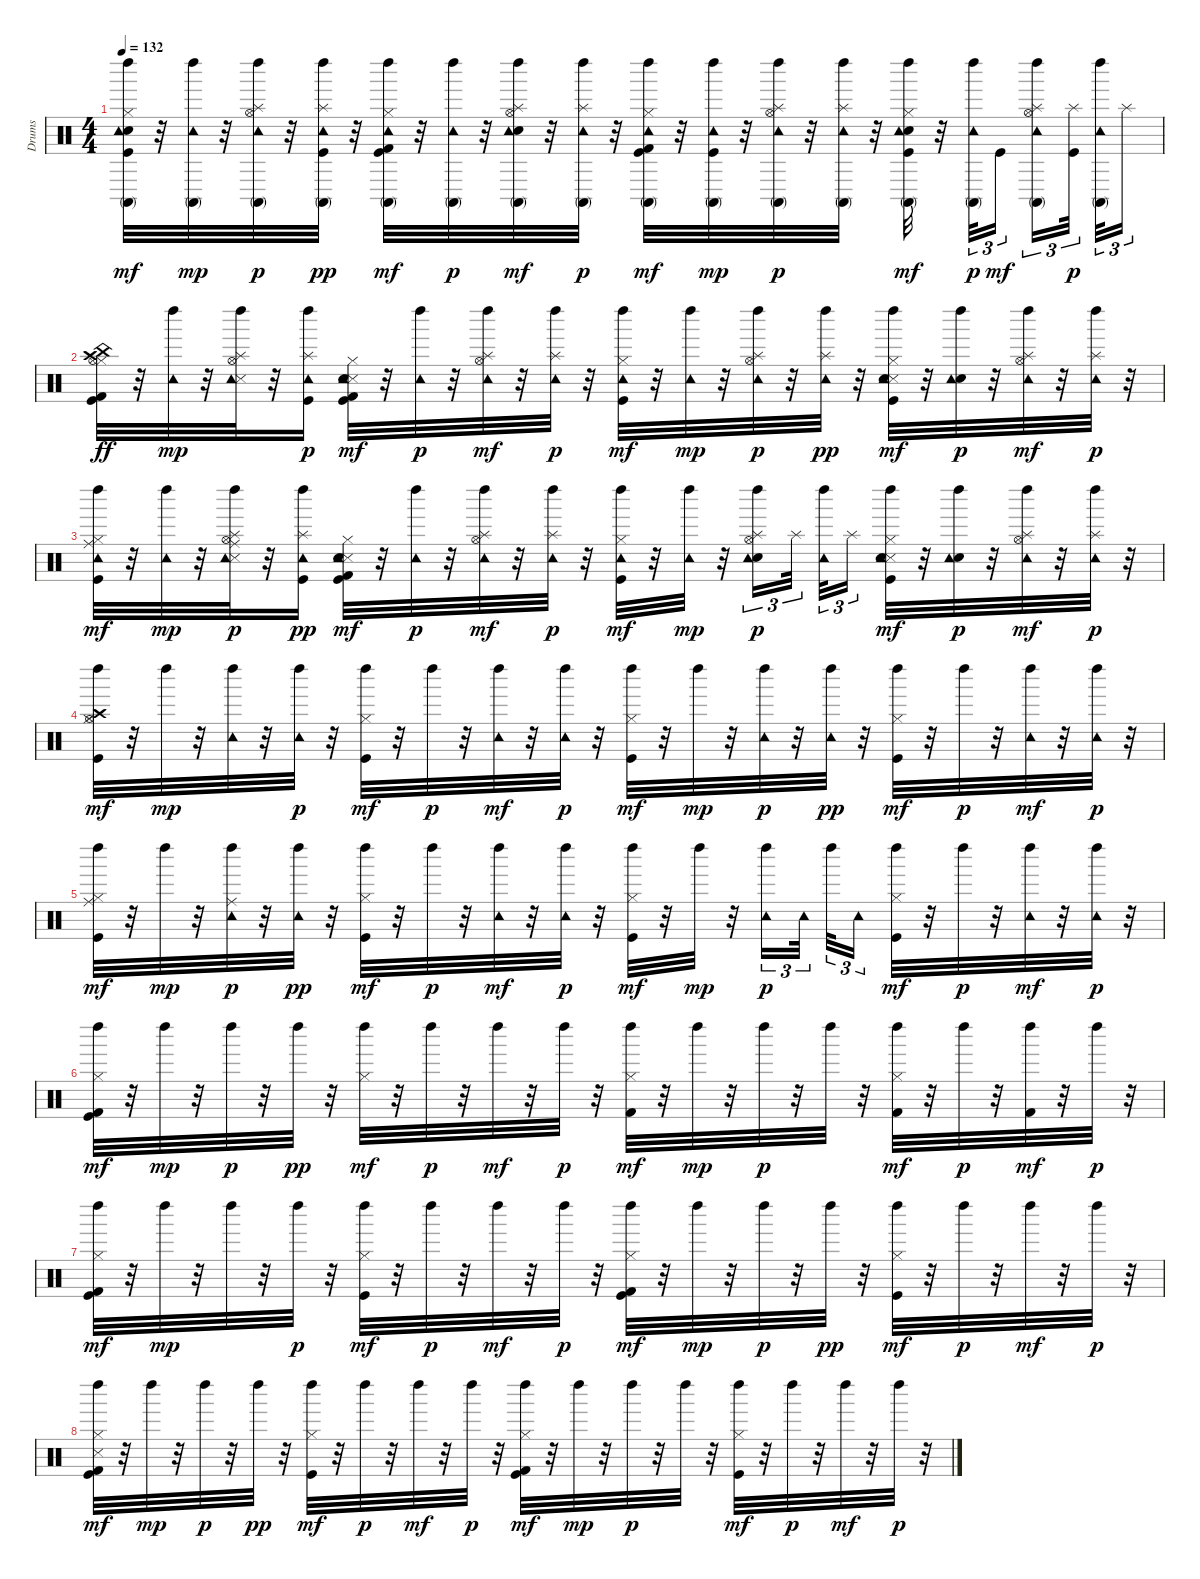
\track ("Drums" "Drums") {instrument percussion}
\staff {score}
\articulation defaults
\ts (4 4)
\tempo 132
\clef neutral
\ks c
("Kick (hit)" "Hand Clap (hit)" "Hi-Hat (closed)" "Tambourine (hit)" "Conga high (mute)" "Left Maraca (hit)").32{dy mf} r.32 ("Tambourine (hit)" "Conga high (mute)" "Left Maraca (hit)").32{dy mp} r.32 ("Hi-Hat (open)" "Tambourine (hit)" "Splash (hit)" "Conga high (mute)" "Left Maraca (hit)").32{dy p} r.32 ("Kick (hit)" "Tambourine (hit)" "Splash (hit)" "Conga high (mute)" "Left Maraca (hit)").32{dy pp} r.32 ("Kick (hit)" "Kick (hit) 2" "Hi-Hat (closed)" "Tambourine (hit)" "Conga high (mute)" "Left Maraca (hit)").32{dy mf} r.32 ("Tambourine (hit)" "Conga high (mute)" "Left Maraca (hit)").32{dy p} r.32 ("Hand Clap (hit)" "Hi-Hat (open)" "Tambourine (hit)" "Splash (hit)" "Conga high (mute)" "Left Maraca (hit)").32{dy mf} r.32 ("Tambourine (hit)" "Splash (hit)" "Conga high (mute)" "Left Maraca (hit)").32{dy p} r.32 ("Kick (hit)" "Kick (hit) 2" "Hi-Hat (closed)" "Tambourine (hit)" "Conga high (mute)" "Left Maraca (hit)").32{dy mf} r.32 ("Kick (hit)" "Tambourine (hit)" "Conga high (mute)" "Left Maraca (hit)").32{dy mp} r.32 ("Hi-Hat (open)" "Tambourine (hit)" "Splash (hit)" "Conga high (mute)" "Left Maraca (hit)").32{dy p} r.32 ("Tambourine (hit)" "Splash (hit)" "Conga high (mute)" "Left Maraca (hit)").32 r.32 ("Kick (hit)" "Hand Clap (hit)" "Hi-Hat (closed)" "Tambourine (hit)" "Conga high (mute)" "Left Maraca (hit)").32{dy mf} r.32 ("Tambourine (hit)" "Conga high (mute)" "Left Maraca (hit)").32{tu (3 2) dy p} "Kick (hit)".16{tu (3 2) dy mf beam splitsecondary} ("Hi-Hat (open)" "Tambourine (hit)" "Splash (hit)" "Conga high (mute)" "Left Maraca (hit)").16{tu (3 2)} ("Kick (hit)" "Splash (hit)").32{tu (3 2) dy p beam splitsecondary} ("Tambourine (hit)" "Conga high (mute)" "Left Maraca (hit)").32{tu (3 2)} "Splash (hit)".16{tu (3 2)} |
("Kick (hit)" "Kick (hit) 2" "Hi-Hat (closed)" "Hi-Hat (open)" "Crash high (hit)" "China (hit)").32{dy ff} r.32 ("Tambourine (hit)" "Left Maraca (hit)").32{dy mp} r.32 ("Snare (side stick) 3" "Hi-Hat (open)" "Tambourine (hit)" "Splash (hit)" "Left Maraca (hit)").32 r.32 ("Kick (hit)" "Tambourine (hit)" "Splash (hit)" "Left Maraca (hit)").16{dy p} ("Kick (hit)" "Kick (hit) 2" "Snare (side stick) 3" "Hand Clap (hit)" "Hi-Hat (closed)" "Tambourine (hit)").32{dy mf} r.32 ("Tambourine (hit)" "Left Maraca (hit)").32{dy p} r.32 ("Hi-Hat (open)" "Tambourine (hit)" "Splash (hit)" "Left Maraca (hit)").32{dy mf} r.32 ("Tambourine (hit)" "Splash (hit)" "Left Maraca (hit)").32{dy p} r.32 ("Kick (hit)" "Hi-Hat (closed)" "Tambourine (hit)" "Left Maraca (hit)").32{dy mf} r.32 ("Tambourine (hit)" "Left Maraca (hit)").32{dy mp} r.32 ("Hi-Hat (open)" "Tambourine (hit)" "Splash (hit)" "Left Maraca (hit)").32{dy p} r.32 ("Tambourine (hit)" "Splash (hit)" "Left Maraca (hit)").32{dy pp} r.32 ("Kick (hit)" "Snare (side stick) 3" "Hand Clap (hit)" "Hi-Hat (closed)" "Tambourine (hit)" "Left Maraca (hit)").32{dy mf} r.32 ("Hand Clap (hit)" "Tambourine (hit)" "Left Maraca (hit)").32{dy p} r.32 ("Hi-Hat (open)" "Tambourine (hit)" "Splash (hit)" "Left Maraca (hit)").32{dy mf} r.32 ("Tambourine (hit)" "Splash (hit)" "Left Maraca (hit)").32{dy p} r.32 |
("Kick (hit)" "Hi-Hat (closed)" "Ride (middle)" "Tambourine (hit)" "Left Maraca (hit)").32{dy mf} r.32 ("Tambourine (hit)" "Left Maraca (hit)").32{dy mp} r.32 ("Snare (side stick) 3" "Hi-Hat (open)" "Ride (middle)" "Tambourine (hit)" "Splash (hit)" "Left Maraca (hit)").32{dy p} r.32 ("Kick (hit)" "Tambourine (hit)" "Splash (hit)" "Left Maraca (hit)").16{dy pp} ("Kick (hit)" "Kick (hit) 2" "Snare (side stick) 3" "Hand Clap (hit)" "Hi-Hat (closed)" "Tambourine (hit)").32{dy mf} r.32 ("Tambourine (hit)" "Left Maraca (hit)").32{dy p} r.32 ("Hi-Hat (open)" "Tambourine (hit)" "Splash (hit)" "Left Maraca (hit)").32{dy mf} r.32 ("Tambourine (hit)" "Splash (hit)" "Left Maraca (hit)").32{dy p} r.32 ("Kick (hit)" "Hi-Hat (closed)" "Tambourine (hit)" "Left Maraca (hit)").32{dy mf} r.32 ("Tambourine (hit)" "Left Maraca (hit)").32{dy mp} r.32 ("Hand Clap (hit)" "Hi-Hat (open)" "Tambourine (hit)" "Splash (hit)" "Left Maraca (hit)").16{tu (3 2) dy p} "Splash (hit)".32{tu (3 2) beam splitsecondary} ("Tambourine (hit)" "Left Maraca (hit)").32{tu (3 2)} "Splash (hit)".16{tu (3 2)} ("Kick (hit)" "Snare (side stick) 3" "Hand Clap (hit)" "Hi-Hat (closed)" "Tambourine (hit)" "Left Maraca (hit)").32{dy mf} r.32 ("Hand Clap (hit)" "Tambourine (hit)" "Left Maraca (hit)").32{dy p} r.32 ("Hi-Hat (open)" "Tambourine (hit)" "Splash (hit)" "Left Maraca (hit)").32{dy mf} r.32 ("Tambourine (hit)" "Splash (hit)" "Left Maraca (hit)").32{dy p} r.32 |
("Kick (hit)" "Hi-Hat (closed)" "Hi-Hat (open)" "Crash high (hit)" "Left Maraca (hit)").32{dy mf} r.32 "Left Maraca (hit)".32{dy mp} r.32 ("Tambourine (hit)" "Left Maraca (hit)").32 r.32 ("Tambourine (hit)" "Left Maraca (hit)").32{dy p} r.32 ("Kick (hit)" "Hi-Hat (closed)" "Left Maraca (hit)").32{dy mf} r.32 "Left Maraca (hit)".32{dy p} r.32 ("Tambourine (hit)" "Left Maraca (hit)").32{dy mf} r.32 ("Tambourine (hit)" "Left Maraca (hit)").32{dy p} r.32 ("Kick (hit)" "Hi-Hat (closed)" "Left Maraca (hit)").32{dy mf} r.32 "Left Maraca (hit)".32{dy mp} r.32 ("Tambourine (hit)" "Left Maraca (hit)").32{dy p} r.32 ("Tambourine (hit)" "Left Maraca (hit)").32{dy pp} r.32 ("Kick (hit)" "Hi-Hat (closed)" "Left Maraca (hit)").32{dy mf} r.32 "Left Maraca (hit)".32{dy p} r.32 ("Tambourine (hit)" "Left Maraca (hit)").32{dy mf} r.32 ("Tambourine (hit)" "Left Maraca (hit)").32{dy p} r.32 |
("Kick (hit)" "Hi-Hat (closed)" "Ride (middle)" "Left Maraca (hit)").32{dy mf} r.32 "Left Maraca (hit)".32{dy mp} r.32 ("Ride (middle)" "Tambourine (hit)" "Left Maraca (hit)").32{dy p} r.32 ("Tambourine (hit)" "Left Maraca (hit)").32{dy pp} r.32 ("Kick (hit)" "Hi-Hat (closed)" "Left Maraca (hit)").32{dy mf} r.32 "Left Maraca (hit)".32{dy p} r.32 ("Tambourine (hit)" "Left Maraca (hit)").32{dy mf} r.32 ("Tambourine (hit)" "Left Maraca (hit)").32{dy p} r.32 ("Kick (hit)" "Hi-Hat (closed)" "Left Maraca (hit)").32{dy mf} r.32 "Left Maraca (hit)".32{dy mp} r.32 ("Tambourine (hit)" "Left Maraca (hit)").16{tu (3 2) dy p} "Tambourine (hit)".32{tu (3 2) beam splitsecondary} "Left Maraca (hit)".32{tu (3 2)} "Tambourine (hit)".16{tu (3 2)} ("Kick (hit)" "Hi-Hat (closed)" "Left Maraca (hit)").32{dy mf} r.32 "Left Maraca (hit)".32{dy p} r.32 ("Tambourine (hit)" "Left Maraca (hit)").32{dy mf} r.32 ("Tambourine (hit)" "Left Maraca (hit)").32{dy p} r.32 |
("Kick (hit)" "Kick (hit) 2" "Hi-Hat (closed)" "Left Maraca (hit)").32{dy mf} r.32 "Left Maraca (hit)".32{dy mp} r.32 "Left Maraca (hit)".32{dy p} r.32 "Left Maraca (hit)".32{dy pp} r.32 ("Hi-Hat (closed)" "Left Maraca (hit)").32{dy mf} r.32 "Left Maraca (hit)".32{dy p} r.32 "Left Maraca (hit)".32{dy mf} r.32 "Left Maraca (hit)".32{dy p} r.32 ("Kick (hit) 2" "Hi-Hat (closed)" "Left Maraca (hit)").32{dy mf} r.32 "Left Maraca (hit)".32{dy mp} r.32 "Left Maraca (hit)".32{dy p} r.32 "Left Maraca (hit)".32 r.32 ("Kick (hit) 2" "Hi-Hat (closed)" "Left Maraca (hit)").32{dy mf} r.32 "Left Maraca (hit)".32{dy p} r.32 ("Kick (hit) 2" "Left Maraca (hit)").32{dy mf} r.32 "Left Maraca (hit)".32{dy p} r.32 |
("Kick (hit)" "Kick (hit) 2" "Hi-Hat (closed)" "Left Maraca (hit)").32{dy mf} r.32 "Left Maraca (hit)".32{dy mp} r.32 "Left Maraca (hit)".32 r.32 "Left Maraca (hit)".32{dy p} r.32 ("Kick (hit)" "Hi-Hat (closed)" "Left Maraca (hit)").32{dy mf} r.32 "Left Maraca (hit)".32{dy p} r.32 "Left Maraca (hit)".32{dy mf} r.32 "Left Maraca (hit)".32{dy p} r.32 ("Kick (hit)" "Kick (hit) 2" "Hi-Hat (closed)" "Left Maraca (hit)").32{dy mf} r.32 "Left Maraca (hit)".32{dy mp} r.32 "Left Maraca (hit)".32{dy p} r.32 "Left Maraca (hit)".32{dy pp} r.32 ("Kick (hit)" "Hi-Hat (closed)" "Left Maraca (hit)").32{dy mf} r.32 "Left Maraca (hit)".32{dy p} r.32 "Left Maraca (hit)".32{dy mf} r.32 "Left Maraca (hit)".32{dy p} r.32 |
("Kick (hit)" "Kick (hit) 2" "Snare (side stick) 3" "Hi-Hat (closed)" "Left Maraca (hit)").32{dy mf} r.32 "Left Maraca (hit)".32{dy mp} r.32 "Left Maraca (hit)".32{dy p} r.32 "Left Maraca (hit)".32{dy pp} r.32 ("Kick (hit)" "Hi-Hat (closed)" "Left Maraca (hit)").32{dy mf} r.32 "Left Maraca (hit)".32{dy p} r.32 "Left Maraca (hit)".32{dy mf} r.32 "Left Maraca (hit)".32{dy p} r.32 ("Kick (hit)" "Kick (hit) 2" "Hi-Hat (closed)" "Left Maraca (hit)").32{dy mf} r.32 "Left Maraca (hit)".32{dy mp} r.32 "Left Maraca (hit)".32{dy p} r.32 "Left Maraca (hit)".32 r.32 ("Kick (hit)" "Hi-Hat (closed)" "Left Maraca (hit)").32{dy mf} r.32 "Left Maraca (hit)".32{dy p} r.32 "Left Maraca (hit)".32{dy mf} r.32 "Left Maraca (hit)".32{dy p} r.32
